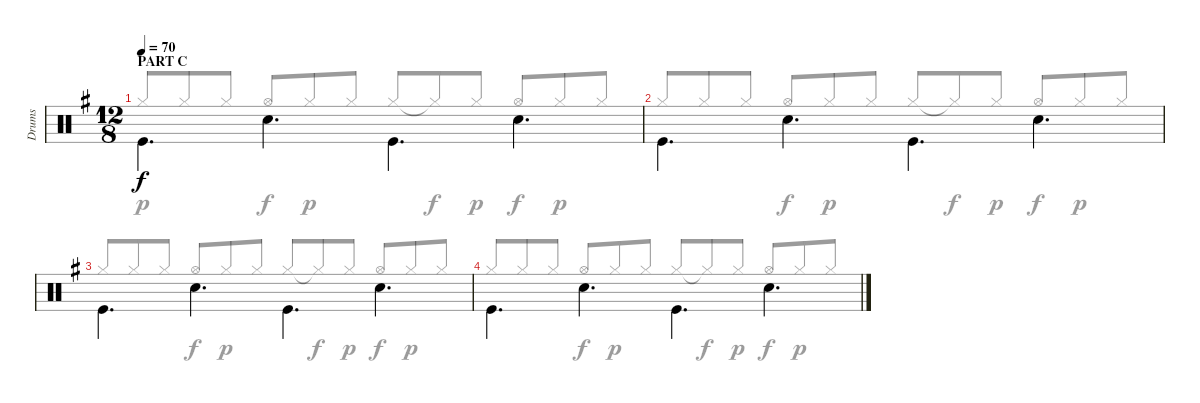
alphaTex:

\track ("Drums" "Drums") {instrument percussion}
\staff {score}
\articulation defaults
\voice
\ts (12 8)
\section ("" "PART C")
\tempo 70
\clef neutral
\ks eminor "Kick (hit)".4{d dy f beam Down} "Snare (hit) 2".4{d beam Down} "Kick (hit)".4{d beam Down} "Snare (hit) 2".4{d beam Down}
|
"Kick (hit)".4{d beam Down} "Snare (hit) 2".4{d beam Down} "Kick (hit)".4{d beam Down} "Snare (hit) 2".4{d beam Down} |
"Kick (hit)".4{d beam Down} "Snare (hit) 2".4{d beam Down} "Kick (hit)".4{d beam Down} "Snare (hit) 2".4{d beam Down} |
"Kick (hit)".4{d beam Down} "Snare (hit) 2".4{d beam Down} "Kick (hit)".4{d beam Down} "Snare (hit) 2".4{d beam Down}
\voice
\clef neutral
\ottava regular
\simile none
\ks eminor "Hi-Hat (closed)".8{dy p beam Up} "Hi-Hat (closed)".8{beam Up} "Hi-Hat (closed)".8{beam Up} "Hi-Hat (open)".8{dy f beam Up} "Hi-Hat (closed)".8{dy p beam Up} "Hi-Hat (closed)".8{beam Up} "Hi-Hat (closed)".8{beam Up} "Hi-Hat (closed)"{t}.8{dy f beam Up} "Hi-Hat (closed)".8{dy p beam Up} "Hi-Hat (open)".8{dy f beam Up} "Hi-Hat (closed)".8{dy p beam Up} "Hi-Hat (closed)".8{beam Up}
|
"Hi-Hat (closed)".8{beam Up} "Hi-Hat (closed)".8{beam Up} "Hi-Hat (closed)".8{beam Up} "Hi-Hat (open)".8{dy f beam Up} "Hi-Hat (closed)".8{dy p beam Up} "Hi-Hat (closed)".8{beam Up} "Hi-Hat (closed)".8{beam Up} "Hi-Hat (closed)"{t}.8{dy f beam Up} "Hi-Hat (closed)".8{dy p beam Up} "Hi-Hat (open)".8{dy f beam Up} "Hi-Hat (closed)".8{dy p beam Up} "Hi-Hat (closed)".8{beam Up} |
"Hi-Hat (closed)".8{beam Up} "Hi-Hat (closed)".8{beam Up} "Hi-Hat (closed)".8{beam Up} "Hi-Hat (open)".8{dy f beam Up} "Hi-Hat (closed)".8{dy p beam Up} "Hi-Hat (closed)".8{beam Up} "Hi-Hat (closed)".8{beam Up} "Hi-Hat (closed)"{t}.8{dy f beam Up} "Hi-Hat (closed)".8{dy p beam Up} "Hi-Hat (open)".8{dy f beam Up} "Hi-Hat (closed)".8{dy p beam Up} "Hi-Hat (closed)".8{beam Up} |
"Hi-Hat (closed)".8{beam Up} "Hi-Hat (closed)".8{beam Up} "Hi-Hat (closed)".8{beam Up} "Hi-Hat (open)".8{dy f beam Up} "Hi-Hat (closed)".8{dy p beam Up} "Hi-Hat (closed)".8{beam Up} "Hi-Hat (closed)".8{beam Up} "Hi-Hat (closed)"{t}.8{dy f beam Up} "Hi-Hat (closed)".8{dy p beam Up} "Hi-Hat (open)".8{dy f beam Up} "Hi-Hat (closed)".8{dy p beam Up} "Hi-Hat (closed)".8{beam Up}
